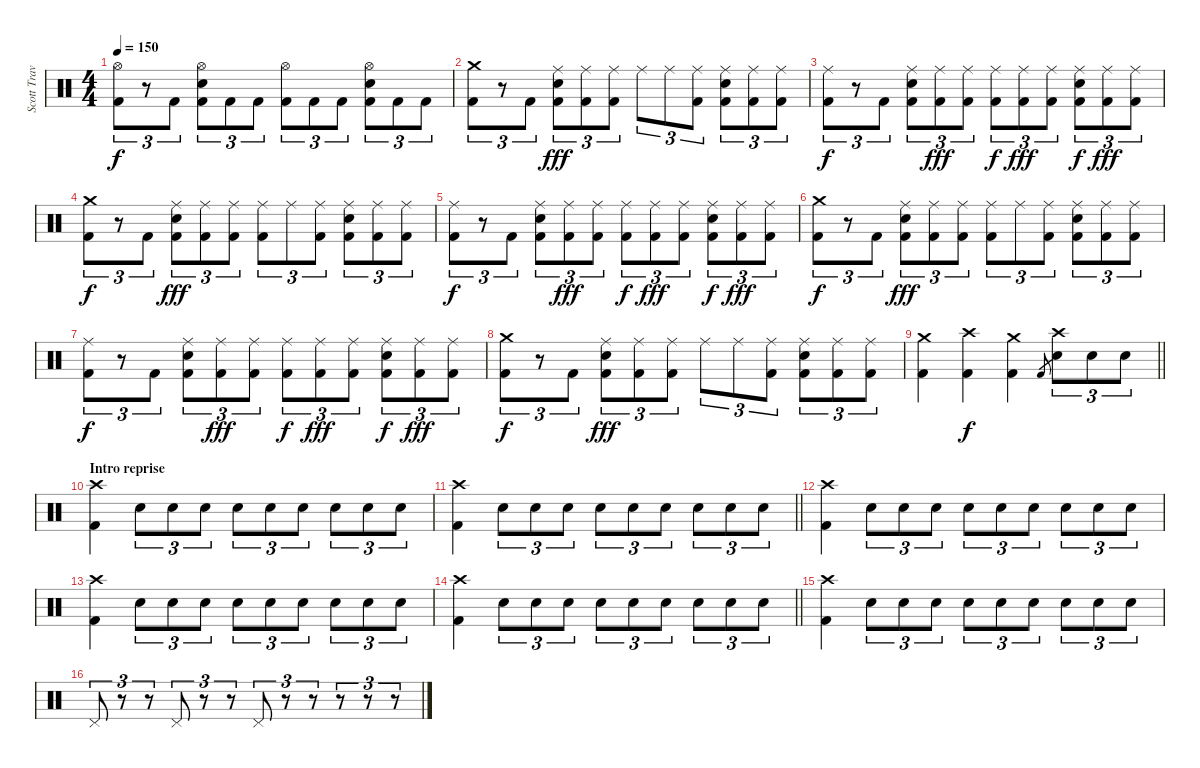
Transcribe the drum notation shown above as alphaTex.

\track ("Scott Travis" "Scott Trav") {instrument percussion}
\staff {score}
\articulation defaults
\ts (4 4)
\tempo 150
\clef neutral
\ks c
("Hi-Hat (open)" "Kick (hit) 2").8{tu (3 2) dy f} r.8{tu (3 2)} "Kick (hit) 2".8{tu (3 2)} ("Hi-Hat (open)" "Snare (hit) 2" "Kick (hit) 2").8{tu (3 2)} "Kick (hit) 2".8{tu (3 2)} "Kick (hit) 2".8{tu (3 2)} ("Hi-Hat (open)" "Kick (hit) 2").8{tu (3 2)} "Kick (hit) 2".8{tu (3 2)} "Kick (hit) 2".8{tu (3 2)} ("Hi-Hat (open)" "Snare (hit) 2" "Kick (hit) 2").8{tu (3 2)} "Kick (hit) 2".8{tu (3 2)} "Kick (hit) 2".8{tu (3 2)} |
("Crash medium (hit)" "Kick (hit) 2").8{tu (3 2)} r.8{tu (3 2)} "Kick (hit) 2".8{tu (3 2)} ("Ride (middle)" "Snare (hit) 2" "Kick (hit) 2").8{tu (3 2) dy fff} ("Ride (middle)" "Kick (hit) 2").8{tu (3 2)} ("Ride (middle)" "Kick (hit) 2").8{tu (3 2)} "Ride (middle)".8{tu (3 2)} "Ride (middle)".8{tu (3 2)} ("Ride (middle)" "Kick (hit) 2").8{tu (3 2)} ("Ride (middle)" "Snare (hit) 2" "Kick (hit) 2").8{tu (3 2)} ("Ride (middle)" "Kick (hit) 2").8{tu (3 2)} ("Ride (middle)" "Kick (hit) 2").8{tu (3 2)} |
("Ride (middle)" "Kick (hit) 2").8{tu (3 2) dy f} r.8{tu (3 2)} "Kick (hit) 2".8{tu (3 2)} ("Ride (middle)" "Snare (hit) 2" "Kick (hit) 2").8{tu (3 2)} ("Ride (middle)" "Kick (hit) 2").8{tu (3 2) dy fff} ("Ride (middle)" "Kick (hit) 2").8{tu (3 2)} ("Ride (middle)" "Kick (hit) 2").8{tu (3 2) dy f} ("Ride (middle)" "Kick (hit) 2").8{tu (3 2) dy fff} ("Ride (middle)" "Kick (hit) 2").8{tu (3 2)} ("Ride (middle)" "Snare (hit) 2" "Kick (hit) 2").8{tu (3 2) dy f} ("Ride (middle)" "Kick (hit) 2").8{tu (3 2) dy fff} ("Ride (middle)" "Kick (hit) 2").8{tu (3 2)} |
("Crash medium (hit)" "Kick (hit) 2").8{tu (3 2) dy f} r.8{tu (3 2)} "Kick (hit) 2".8{tu (3 2)} ("Ride (middle)" "Snare (hit) 2" "Kick (hit) 2").8{tu (3 2) dy fff} ("Ride (middle)" "Kick (hit) 2").8{tu (3 2)} ("Ride (middle)" "Kick (hit) 2").8{tu (3 2)} ("Ride (middle)" "Kick (hit) 2").8{tu (3 2)} "Ride (middle)".8{tu (3 2)} ("Ride (middle)" "Kick (hit) 2").8{tu (3 2)} ("Ride (middle)" "Snare (hit) 2" "Kick (hit) 2").8{tu (3 2)} ("Ride (middle)" "Kick (hit) 2").8{tu (3 2)} ("Ride (middle)" "Kick (hit) 2").8{tu (3 2)} |
("Ride (middle)" "Kick (hit) 2").8{tu (3 2) dy f} r.8{tu (3 2)} "Kick (hit) 2".8{tu (3 2)} ("Ride (middle)" "Snare (hit) 2" "Kick (hit) 2").8{tu (3 2)} ("Ride (middle)" "Kick (hit) 2").8{tu (3 2) dy fff} ("Ride (middle)" "Kick (hit) 2").8{tu (3 2)} ("Ride (middle)" "Kick (hit) 2").8{tu (3 2) dy f} ("Ride (middle)" "Kick (hit) 2").8{tu (3 2) dy fff} ("Ride (middle)" "Kick (hit) 2").8{tu (3 2)} ("Ride (middle)" "Snare (hit) 2" "Kick (hit) 2").8{tu (3 2) dy f} ("Ride (middle)" "Kick (hit) 2").8{tu (3 2) dy fff} ("Ride (middle)" "Kick (hit) 2").8{tu (3 2)} |
("Crash medium (hit)" "Kick (hit) 2").8{tu (3 2) dy f} r.8{tu (3 2)} "Kick (hit) 2".8{tu (3 2)} ("Ride (middle)" "Snare (hit) 2" "Kick (hit) 2").8{tu (3 2) dy fff} ("Ride (middle)" "Kick (hit) 2").8{tu (3 2)} ("Ride (middle)" "Kick (hit) 2").8{tu (3 2)} ("Ride (middle)" "Kick (hit) 2").8{tu (3 2)} "Ride (middle)".8{tu (3 2)} ("Ride (middle)" "Kick (hit) 2").8{tu (3 2)} ("Ride (middle)" "Snare (hit) 2" "Kick (hit) 2").8{tu (3 2)} ("Ride (middle)" "Kick (hit) 2").8{tu (3 2)} ("Ride (middle)" "Kick (hit) 2").8{tu (3 2)} |
("Ride (middle)" "Kick (hit) 2").8{tu (3 2) dy f} r.8{tu (3 2)} "Kick (hit) 2".8{tu (3 2)} ("Ride (middle)" "Snare (hit) 2" "Kick (hit) 2").8{tu (3 2)} ("Ride (middle)" "Kick (hit) 2").8{tu (3 2) dy fff} ("Ride (middle)" "Kick (hit) 2").8{tu (3 2)} ("Ride (middle)" "Kick (hit) 2").8{tu (3 2) dy f} ("Ride (middle)" "Kick (hit) 2").8{tu (3 2) dy fff} ("Ride (middle)" "Kick (hit) 2").8{tu (3 2)} ("Ride (middle)" "Snare (hit) 2" "Kick (hit) 2").8{tu (3 2) dy f} ("Ride (middle)" "Kick (hit) 2").8{tu (3 2) dy fff} ("Ride (middle)" "Kick (hit) 2").8{tu (3 2)} |
("Crash medium (hit)" "Kick (hit) 2").8{tu (3 2) dy f} r.8{tu (3 2)} "Kick (hit) 2".8{tu (3 2)} ("Ride (middle)" "Snare (hit) 2" "Kick (hit) 2").8{tu (3 2) dy fff} ("Ride (middle)" "Kick (hit) 2").8{tu (3 2)} ("Ride (middle)" "Kick (hit) 2").8{tu (3 2)} "Ride (middle)".8{tu (3 2)} "Ride (middle)".8{tu (3 2)} ("Ride (middle)" "Kick (hit) 2").8{tu (3 2)} ("Ride (middle)" "Snare (hit) 2" "Kick (hit) 2").8{tu (3 2)} ("Ride (middle)" "Kick (hit) 2").8{tu (3 2)} ("Ride (middle)" "Kick (hit) 2").8{tu (3 2)} |
\barLineRight lightlight
("Crash medium (hit)" "Kick (hit) 2").4 ("Crash high (hit)" "Kick (hit) 2").4{dy f} ("Crash medium (hit)" "Kick (hit) 2").4 "Kick (hit) 2".8{gr} ("Crash high (hit)" "Snare (hit) 2").8{tu (3 2)} "Snare (hit) 2".8{tu (3 2)} "Snare (hit) 2".8{tu (3 2)} |
\section ("" "Intro reprise")
("Crash high (hit)" "Kick (hit) 2").4 "Snare (hit) 2".8{tu (3 2)} "Snare (hit) 2".8{tu (3 2)} "Snare (hit) 2".8{tu (3 2)} "Snare (hit) 2".8{tu (3 2)} "Snare (hit) 2".8{tu (3 2)} "Snare (hit) 2".8{tu (3 2)} "Snare (hit) 2".8{tu (3 2)} "Snare (hit) 2".8{tu (3 2)} "Snare (hit) 2".8{tu (3 2)} |
\barLineRight lightlight
("Crash high (hit)" "Kick (hit) 2").4 "Snare (hit) 2".8{tu (3 2)} "Snare (hit) 2".8{tu (3 2)} "Snare (hit) 2".8{tu (3 2)} "Snare (hit) 2".8{tu (3 2)} "Snare (hit) 2".8{tu (3 2)} "Snare (hit) 2".8{tu (3 2)} "Snare (hit) 2".8{tu (3 2)} "Snare (hit) 2".8{tu (3 2)} "Snare (hit) 2".8{tu (3 2)} |
("Crash high (hit)" "Kick (hit) 2").4 "Snare (hit) 2".8{tu (3 2)} "Snare (hit) 2".8{tu (3 2)} "Snare (hit) 2".8{tu (3 2)} "Snare (hit) 2".8{tu (3 2)} "Snare (hit) 2".8{tu (3 2)} "Snare (hit) 2".8{tu (3 2)} "Snare (hit) 2".8{tu (3 2)} "Snare (hit) 2".8{tu (3 2)} "Snare (hit) 2".8{tu (3 2)} |
("Crash high (hit)" "Kick (hit) 2").4 "Snare (hit) 2".8{tu (3 2)} "Snare (hit) 2".8{tu (3 2)} "Snare (hit) 2".8{tu (3 2)} "Snare (hit) 2".8{tu (3 2)} "Snare (hit) 2".8{tu (3 2)} "Snare (hit) 2".8{tu (3 2)} "Snare (hit) 2".8{tu (3 2)} "Snare (hit) 2".8{tu (3 2)} "Snare (hit) 2".8{tu (3 2)} |
\barLineRight lightlight
("Crash high (hit)" "Kick (hit) 2").4 "Snare (hit) 2".8{tu (3 2)} "Snare (hit) 2".8{tu (3 2)} "Snare (hit) 2".8{tu (3 2)} "Snare (hit) 2".8{tu (3 2)} "Snare (hit) 2".8{tu (3 2)} "Snare (hit) 2".8{tu (3 2)} "Snare (hit) 2".8{tu (3 2)} "Snare (hit) 2".8{tu (3 2)} "Snare (hit) 2".8{tu (3 2)} |
("Crash high (hit)" "Kick (hit) 2").4 "Snare (hit) 2".8{tu (3 2)} "Snare (hit) 2".8{tu (3 2)} "Snare (hit) 2".8{tu (3 2)} "Snare (hit) 2".8{tu (3 2)} "Snare (hit) 2".8{tu (3 2)} "Snare (hit) 2".8{tu (3 2)} "Snare (hit) 2".8{tu (3 2)} "Snare (hit) 2".8{tu (3 2)} "Snare (hit) 2".8{tu (3 2)} |
"Pedal Hi-Hat (hit)".8{tu (3 2)} r.8{tu (3 2)} r.8{tu (3 2)} "Pedal Hi-Hat (hit)".8{tu (3 2)} r.8{tu (3 2)} r.8{tu (3 2)} "Pedal Hi-Hat (hit)".8{tu (3 2)} r.8{tu (3 2)} r.8{tu (3 2)} r.8{tu (3 2)} r.8{tu (3 2)} r.8{tu (3 2)}
